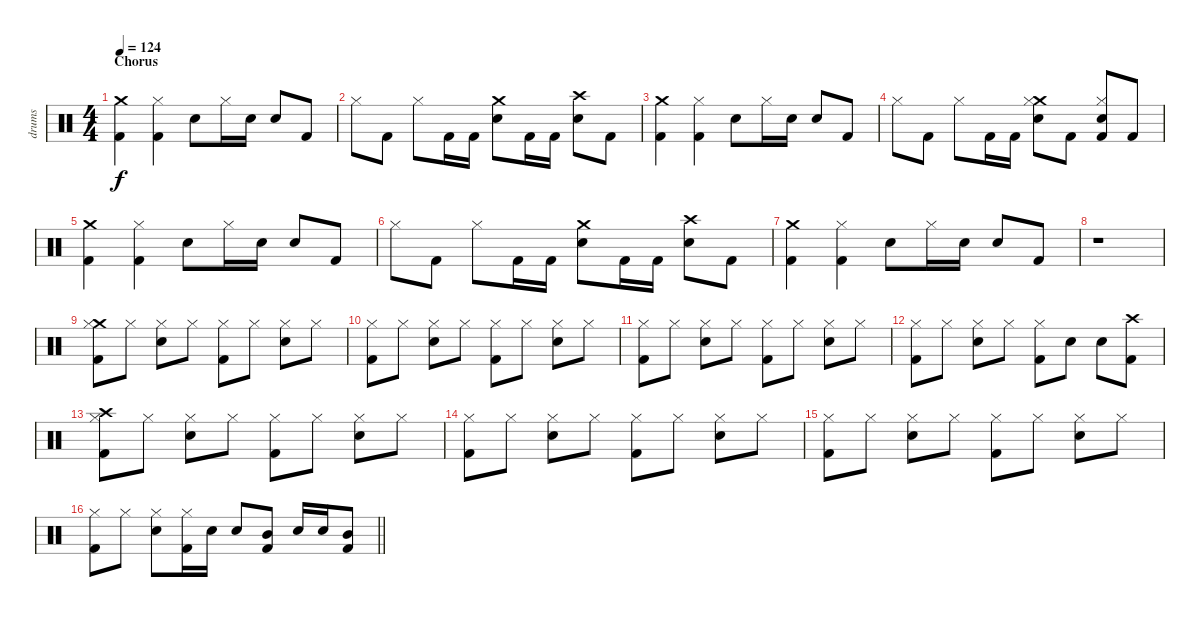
\track ("drums" "drums") {instrument percussion}
\staff {score}
\articulation defaults
\ts (4 4)
\section ("" "Chorus")
\tempo 124
\clef neutral
\ks c
("Crash medium (hit)" "Kick (hit) 2").4{dy f} ("Hi-Hat (closed)" "Kick (hit) 2").4 "Snare (hit) 2".8 "Hi-Hat (closed)".16 "Snare (hit) 2".16 "Snare (hit) 2".8 "Kick (hit) 2".8 |
"Hi-Hat (closed)".8 "Kick (hit) 2".8 "Hi-Hat (closed)".8 "Kick (hit) 2".16 "Kick (hit) 2".16 ("Crash medium (hit)" "Snare (hit) 2").8 "Kick (hit) 2".16 "Kick (hit) 2".16 ("Crash high (hit)" "Snare (hit) 2").8 "Kick (hit) 2".8 |
("Crash medium (hit)" "Kick (hit) 2").4 ("Hi-Hat (closed)" "Kick (hit) 2").4 "Snare (hit) 2".8 "Hi-Hat (closed)".16 "Snare (hit) 2".16 "Snare (hit) 2".8 "Kick (hit) 2".8 |
"Hi-Hat (closed)".8 "Kick (hit) 2".8 "Hi-Hat (closed)".8 "Kick (hit) 2".16 "Kick (hit) 2".16 ("Crash medium (hit)" "Hi-Hat (closed)" "Snare (hit) 2").8 "Kick (hit) 2".8 ("Hi-Hat (closed)" "Snare (hit) 2" "Kick (hit) 2").8 "Kick (hit) 2".8 |
("Crash medium (hit)" "Kick (hit) 2").4 ("Hi-Hat (closed)" "Kick (hit) 2").4 "Snare (hit) 2".8 "Hi-Hat (closed)".16 "Snare (hit) 2".16 "Snare (hit) 2".8 "Kick (hit) 2".8 |
"Hi-Hat (closed)".8 "Kick (hit) 2".8 "Hi-Hat (closed)".8 "Kick (hit) 2".16 "Kick (hit) 2".16 ("Crash medium (hit)" "Snare (hit) 2").8 "Kick (hit) 2".16 "Kick (hit) 2".16 ("Crash high (hit)" "Snare (hit) 2").8 "Kick (hit) 2".8 |
("Crash medium (hit)" "Kick (hit) 2").4 ("Hi-Hat (closed)" "Kick (hit) 2").4 "Snare (hit) 2".8 "Hi-Hat (closed)".16 "Snare (hit) 2".16 "Snare (hit) 2".8 "Kick (hit) 2".8 |
r.1 |
("Crash medium (hit)" "Hi-Hat (closed)" "Kick (hit) 2").8 "Hi-Hat (closed)".8 ("Hi-Hat (closed)" "Snare (hit) 2").8 "Hi-Hat (closed)".8 ("Hi-Hat (closed)" "Kick (hit) 2").8 "Hi-Hat (closed)".8 ("Hi-Hat (closed)" "Snare (hit) 2").8 "Hi-Hat (closed)".8 |
("Hi-Hat (closed)" "Kick (hit) 2").8 "Hi-Hat (closed)".8 ("Hi-Hat (closed)" "Snare (hit) 2").8 "Hi-Hat (closed)".8 ("Hi-Hat (closed)" "Kick (hit) 2").8 "Hi-Hat (closed)".8 ("Hi-Hat (closed)" "Snare (hit) 2").8 "Hi-Hat (closed)".8 |
("Hi-Hat (closed)" "Kick (hit) 2").8 "Hi-Hat (closed)".8 ("Hi-Hat (closed)" "Snare (hit) 2").8 "Hi-Hat (closed)".8 ("Hi-Hat (closed)" "Kick (hit) 2").8 "Hi-Hat (closed)".8 ("Hi-Hat (closed)" "Snare (hit) 2").8 "Hi-Hat (closed)".8 |
("Hi-Hat (closed)" "Kick (hit) 2").8 "Hi-Hat (closed)".8 ("Hi-Hat (closed)" "Snare (hit) 2").8 "Hi-Hat (closed)".8 ("Hi-Hat (closed)" "Kick (hit) 2").8 "Snare (hit) 2".8 "Snare (hit) 2".8 ("Crash high (hit)" "Kick (hit) 2").8 |
("Crash high (hit)" "Hi-Hat (closed)" "Kick (hit) 2").8 "Hi-Hat (closed)".8 ("Hi-Hat (closed)" "Snare (hit) 2").8 "Hi-Hat (closed)".8 ("Hi-Hat (closed)" "Kick (hit) 2").8 "Hi-Hat (closed)".8 ("Hi-Hat (closed)" "Snare (hit) 2").8 "Hi-Hat (closed)".8 |
("Hi-Hat (closed)" "Kick (hit) 2").8 "Hi-Hat (closed)".8 ("Hi-Hat (closed)" "Snare (hit) 2").8 "Hi-Hat (closed)".8 ("Hi-Hat (closed)" "Kick (hit) 2").8 "Hi-Hat (closed)".8 ("Hi-Hat (closed)" "Snare (hit) 2").8 "Hi-Hat (closed)".8 |
("Hi-Hat (closed)" "Kick (hit) 2").8 "Hi-Hat (closed)".8 ("Hi-Hat (closed)" "Snare (hit) 2").8 "Hi-Hat (closed)".8 ("Hi-Hat (closed)" "Kick (hit) 2").8 "Hi-Hat (closed)".8 ("Hi-Hat (closed)" "Snare (hit) 2").8 "Hi-Hat (closed)".8 |
\barLineRight lightlight
("Hi-Hat (closed)" "Kick (hit) 2").8 "Hi-Hat (closed)".8 ("Hi-Hat (closed)" "Snare (hit) 2").8 ("Hi-Hat (closed)" "Kick (hit) 2").16 "Snare (hit) 2".16 "Snare (hit) 2".8 ("Mid Tom (hit)" "Kick (hit) 2").8 "Snare (hit) 2".16 "Snare (hit) 2".16 ("Mid Tom (hit)" "Kick (hit) 2").8
